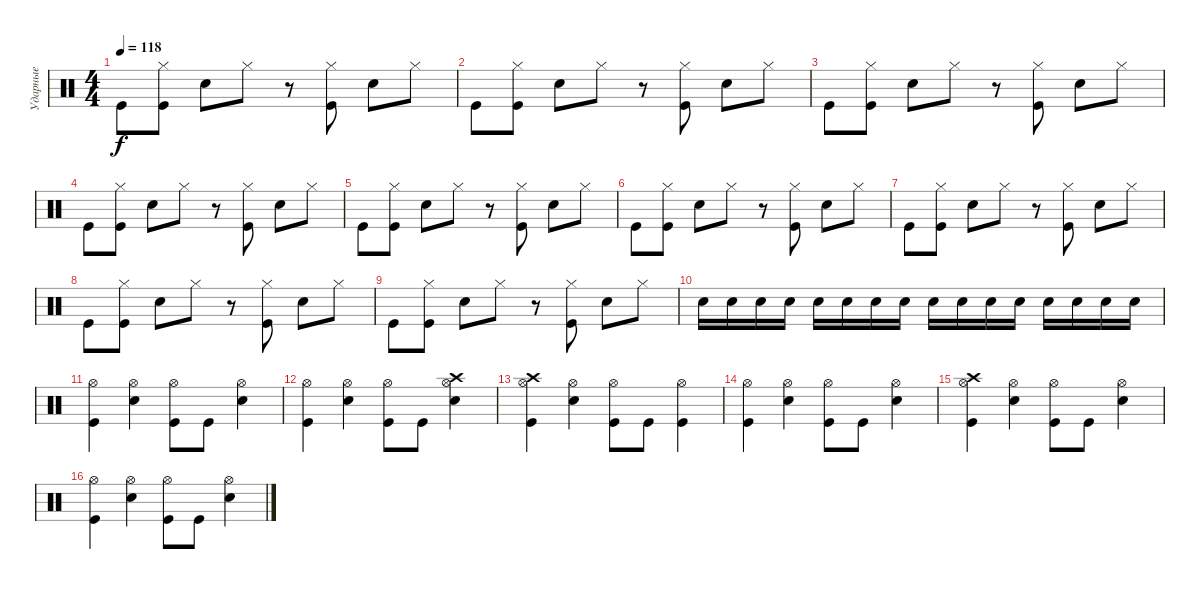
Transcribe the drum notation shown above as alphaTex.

\track ("Ударные" "Ударные") {instrument percussion}
\staff {score}
\articulation defaults
\ts (4 4)
\tempo 118
\clef neutral
\ks c "Kick (hit)".8{dy f}
("Hi-Hat (closed)" "Kick (hit)").8 "Snare (hit) 2".8 "Hi-Hat (closed)".8 r.8 ("Hi-Hat (closed)" "Kick (hit)").8 "Snare (hit) 2".8 "Hi-Hat (closed)".8 |
"Kick (hit)".8 ("Hi-Hat (closed)" "Kick (hit)").8 "Snare (hit) 2".8 "Hi-Hat (closed)".8 r.8 ("Hi-Hat (closed)" "Kick (hit)").8 "Snare (hit) 2".8 "Hi-Hat (closed)".8 |
"Kick (hit)".8 ("Hi-Hat (closed)" "Kick (hit)").8 "Snare (hit) 2".8 "Hi-Hat (closed)".8 r.8 ("Hi-Hat (closed)" "Kick (hit)").8 "Snare (hit) 2".8 "Hi-Hat (closed)".8 |
"Kick (hit)".8 ("Hi-Hat (closed)" "Kick (hit)").8 "Snare (hit) 2".8 "Hi-Hat (closed)".8 r.8 ("Hi-Hat (closed)" "Kick (hit)").8 "Snare (hit) 2".8 "Hi-Hat (closed)".8 |
"Kick (hit)".8 ("Hi-Hat (closed)" "Kick (hit)").8 "Snare (hit) 2".8 "Hi-Hat (closed)".8 r.8 ("Hi-Hat (closed)" "Kick (hit)").8 "Snare (hit) 2".8 "Hi-Hat (closed)".8 |
"Kick (hit)".8 ("Hi-Hat (closed)" "Kick (hit)").8 "Snare (hit) 2".8 "Hi-Hat (closed)".8 r.8 ("Hi-Hat (closed)" "Kick (hit)").8 "Snare (hit) 2".8 "Hi-Hat (closed)".8 |
"Kick (hit)".8 ("Hi-Hat (closed)" "Kick (hit)").8 "Snare (hit) 2".8 "Hi-Hat (closed)".8 r.8 ("Hi-Hat (closed)" "Kick (hit)").8 "Snare (hit) 2".8 "Hi-Hat (closed)".8 |
"Kick (hit)".8 ("Hi-Hat (closed)" "Kick (hit)").8 "Snare (hit) 2".8 "Hi-Hat (closed)".8 r.8 ("Hi-Hat (closed)" "Kick (hit)").8 "Snare (hit) 2".8 "Hi-Hat (closed)".8 |
"Kick (hit)".8 ("Hi-Hat (closed)" "Kick (hit)").8 "Snare (hit) 2".8 "Hi-Hat (closed)".8 r.8 ("Hi-Hat (closed)" "Kick (hit)").8 "Snare (hit) 2".8 "Hi-Hat (closed)".8 |
"Snare (hit) 2".16 "Snare (hit) 2".16 "Snare (hit) 2".16 "Snare (hit) 2".16 "Snare (hit) 2".16 "Snare (hit) 2".16 "Snare (hit) 2".16 "Snare (hit) 2".16 "Snare (hit) 2".16 "Snare (hit) 2".16 "Snare (hit) 2".16 "Snare (hit) 2".16 "Snare (hit) 2".16 "Snare (hit) 2".16 "Snare (hit) 2".16 "Snare (hit) 2".16 |
("Hi-Hat (open)" "Kick (hit)").4 ("Hi-Hat (open)" "Snare (hit) 2").4 ("Hi-Hat (open)" "Kick (hit)").8 "Kick (hit)".8 ("Hi-Hat (open)" "Snare (hit) 2").4 |
("Hi-Hat (open)" "Kick (hit)").4 ("Hi-Hat (open)" "Snare (hit) 2").4 ("Hi-Hat (open)" "Kick (hit)").8 "Kick (hit)".8 ("Hi-Hat (open)" "Crash high (hit)" "Snare (hit) 2").4 |
("Hi-Hat (open)" "Crash high (hit)" "Kick (hit)").4 ("Hi-Hat (open)" "Snare (hit) 2").4 ("Hi-Hat (open)" "Kick (hit)").8 "Kick (hit)".8 ("Hi-Hat (open)" "Kick (hit)").4 |
("Hi-Hat (open)" "Kick (hit)").4 ("Hi-Hat (open)" "Snare (hit) 2").4 ("Hi-Hat (open)" "Kick (hit)").8 "Kick (hit)".8 ("Hi-Hat (open)" "Snare (hit) 2").4 |
("Hi-Hat (open)" "Crash high (hit)" "Kick (hit)").4 ("Hi-Hat (open)" "Snare (hit) 2").4 ("Hi-Hat (open)" "Kick (hit)").8 "Kick (hit)".8 ("Hi-Hat (open)" "Snare (hit) 2").4 |
("Hi-Hat (open)" "Kick (hit)").4 ("Hi-Hat (open)" "Snare (hit) 2").4 ("Hi-Hat (open)" "Kick (hit)").8 "Kick (hit)".8 ("Hi-Hat (open)" "Snare (hit) 2").4
